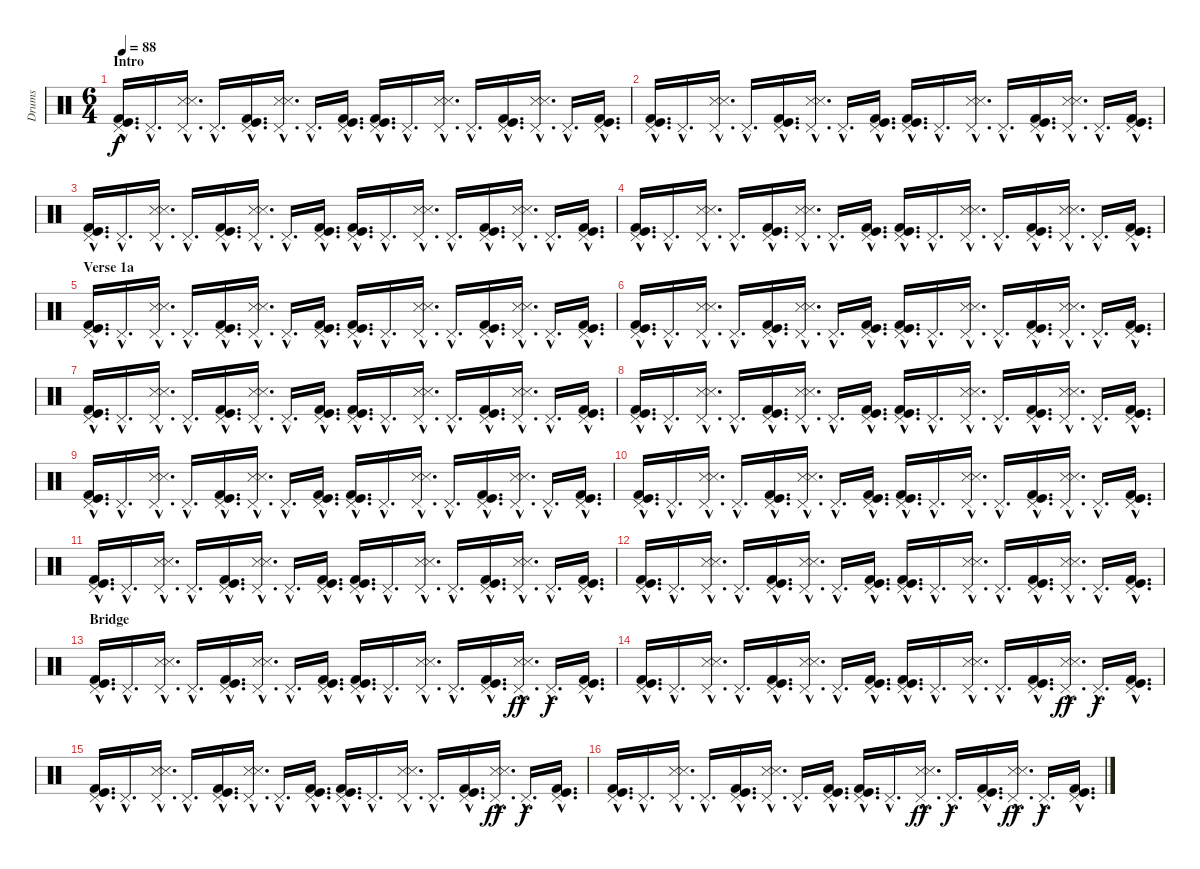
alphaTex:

\track ("Drums" "Drums") {instrument percussion}
\staff {score}
\articulation defaults
\ts (6 4)
\section ("" "Intro")
\tempo 88
\clef neutral
\ks c
("Pedal Hi-Hat (hit)"{hac} "Kick (hit)"{hac} "Kick (hit) 2"{hac}).16{d dy f} "Pedal Hi-Hat (hit)"{hac}.16{d} ("Pedal Hi-Hat (hit)"{hac} "Snare (side stick) 3"{hac} "Snare (side stick) 3"{hac}).16{d} "Pedal Hi-Hat (hit)"{hac}.16{d} ("Pedal Hi-Hat (hit)"{hac} "Kick (hit)"{hac} "Kick (hit) 2"{hac}).16{d} ("Pedal Hi-Hat (hit)"{hac} "Snare (side stick) 3"{hac} "Snare (side stick) 3"{hac}).16{d} "Pedal Hi-Hat (hit)"{hac}.16{d} ("Pedal Hi-Hat (hit)"{hac} "Kick (hit)"{hac} "Kick (hit) 2"{hac}).16{d} ("Pedal Hi-Hat (hit)"{hac} "Kick (hit)"{hac} "Kick (hit) 2"{hac}).16{d} "Pedal Hi-Hat (hit)"{hac}.16{d} ("Pedal Hi-Hat (hit)"{hac} "Snare (side stick) 3"{hac} "Snare (side stick) 3"{hac}).16{d} "Pedal Hi-Hat (hit)"{hac}.16{d} ("Pedal Hi-Hat (hit)"{hac} "Kick (hit)"{hac} "Kick (hit) 2"{hac}).16{d} ("Pedal Hi-Hat (hit)"{hac} "Snare (side stick) 3"{hac} "Snare (side stick) 3"{hac}).16{d} "Pedal Hi-Hat (hit)"{hac}.16{d} ("Pedal Hi-Hat (hit)"{hac} "Kick (hit)"{hac} "Kick (hit) 2"{hac}).16{d} |
("Pedal Hi-Hat (hit)"{hac} "Kick (hit)"{hac} "Kick (hit) 2"{hac}).16{d} "Pedal Hi-Hat (hit)"{hac}.16{d} ("Pedal Hi-Hat (hit)"{hac} "Snare (side stick) 3"{hac} "Snare (side stick) 3"{hac}).16{d} "Pedal Hi-Hat (hit)"{hac}.16{d} ("Pedal Hi-Hat (hit)"{hac} "Kick (hit)"{hac} "Kick (hit) 2"{hac}).16{d} ("Pedal Hi-Hat (hit)"{hac} "Snare (side stick) 3"{hac} "Snare (side stick) 3"{hac}).16{d} "Pedal Hi-Hat (hit)"{hac}.16{d} ("Pedal Hi-Hat (hit)"{hac} "Kick (hit)"{hac} "Kick (hit) 2"{hac}).16{d} ("Pedal Hi-Hat (hit)"{hac} "Kick (hit)"{hac} "Kick (hit) 2"{hac}).16{d} "Pedal Hi-Hat (hit)"{hac}.16{d} ("Pedal Hi-Hat (hit)"{hac} "Snare (side stick) 3"{hac} "Snare (side stick) 3"{hac}).16{d} "Pedal Hi-Hat (hit)"{hac}.16{d} ("Pedal Hi-Hat (hit)"{hac} "Kick (hit)"{hac} "Kick (hit) 2"{hac}).16{d} ("Pedal Hi-Hat (hit)"{hac} "Snare (side stick) 3"{hac} "Snare (side stick) 3"{hac}).16{d} "Pedal Hi-Hat (hit)"{hac}.16{d} ("Pedal Hi-Hat (hit)"{hac} "Kick (hit)"{hac} "Kick (hit) 2"{hac}).16{d} |
("Pedal Hi-Hat (hit)"{hac} "Kick (hit)"{hac} "Kick (hit) 2"{hac}).16{d} "Pedal Hi-Hat (hit)"{hac}.16{d} ("Pedal Hi-Hat (hit)"{hac} "Snare (side stick) 3"{hac} "Snare (side stick) 3"{hac}).16{d} "Pedal Hi-Hat (hit)"{hac}.16{d} ("Pedal Hi-Hat (hit)"{hac} "Kick (hit)"{hac} "Kick (hit) 2"{hac}).16{d} ("Pedal Hi-Hat (hit)"{hac} "Snare (side stick) 3"{hac} "Snare (side stick) 3"{hac}).16{d} "Pedal Hi-Hat (hit)"{hac}.16{d} ("Pedal Hi-Hat (hit)"{hac} "Kick (hit)"{hac} "Kick (hit) 2"{hac}).16{d} ("Pedal Hi-Hat (hit)"{hac} "Kick (hit)"{hac} "Kick (hit) 2"{hac}).16{d} "Pedal Hi-Hat (hit)"{hac}.16{d} ("Pedal Hi-Hat (hit)"{hac} "Snare (side stick) 3"{hac} "Snare (side stick) 3"{hac}).16{d} "Pedal Hi-Hat (hit)"{hac}.16{d} ("Pedal Hi-Hat (hit)"{hac} "Kick (hit)"{hac} "Kick (hit) 2"{hac}).16{d} ("Pedal Hi-Hat (hit)"{hac} "Snare (side stick) 3"{hac} "Snare (side stick) 3"{hac}).16{d} "Pedal Hi-Hat (hit)"{hac}.16{d} ("Pedal Hi-Hat (hit)"{hac} "Kick (hit)"{hac} "Kick (hit) 2"{hac}).16{d} |
("Pedal Hi-Hat (hit)"{hac} "Kick (hit)"{hac} "Kick (hit) 2"{hac}).16{d} "Pedal Hi-Hat (hit)"{hac}.16{d} ("Pedal Hi-Hat (hit)"{hac} "Snare (side stick) 3"{hac} "Snare (side stick) 3"{hac}).16{d} "Pedal Hi-Hat (hit)"{hac}.16{d} ("Pedal Hi-Hat (hit)"{hac} "Kick (hit)"{hac} "Kick (hit) 2"{hac}).16{d} ("Pedal Hi-Hat (hit)"{hac} "Snare (side stick) 3"{hac} "Snare (side stick) 3"{hac}).16{d} "Pedal Hi-Hat (hit)"{hac}.16{d} ("Pedal Hi-Hat (hit)"{hac} "Kick (hit)"{hac} "Kick (hit) 2"{hac}).16{d} ("Pedal Hi-Hat (hit)"{hac} "Kick (hit)"{hac} "Kick (hit) 2"{hac}).16{d} "Pedal Hi-Hat (hit)"{hac}.16{d} ("Pedal Hi-Hat (hit)"{hac} "Snare (side stick) 3"{hac} "Snare (side stick) 3"{hac}).16{d} "Pedal Hi-Hat (hit)"{hac}.16{d} ("Pedal Hi-Hat (hit)"{hac} "Kick (hit)"{hac} "Kick (hit) 2"{hac}).16{d} ("Pedal Hi-Hat (hit)"{hac} "Snare (side stick) 3"{hac} "Snare (side stick) 3"{hac}).16{d} "Pedal Hi-Hat (hit)"{hac}.16{d} ("Pedal Hi-Hat (hit)"{hac} "Kick (hit)"{hac} "Kick (hit) 2"{hac}).16{d} |
\section ("" "Verse 1a")
("Pedal Hi-Hat (hit)"{hac} "Kick (hit)"{hac} "Kick (hit) 2"{hac}).16{d} "Pedal Hi-Hat (hit)"{hac}.16{d} ("Pedal Hi-Hat (hit)"{hac} "Snare (side stick) 3"{hac} "Snare (side stick) 3"{hac}).16{d} "Pedal Hi-Hat (hit)"{hac}.16{d} ("Pedal Hi-Hat (hit)"{hac} "Kick (hit)"{hac} "Kick (hit) 2"{hac}).16{d} ("Pedal Hi-Hat (hit)"{hac} "Snare (side stick) 3"{hac} "Snare (side stick) 3"{hac}).16{d} "Pedal Hi-Hat (hit)"{hac}.16{d} ("Pedal Hi-Hat (hit)"{hac} "Kick (hit)"{hac} "Kick (hit) 2"{hac}).16{d} ("Pedal Hi-Hat (hit)"{hac} "Kick (hit)"{hac} "Kick (hit) 2"{hac}).16{d} "Pedal Hi-Hat (hit)"{hac}.16{d} ("Pedal Hi-Hat (hit)"{hac} "Snare (side stick) 3"{hac} "Snare (side stick) 3"{hac}).16{d} "Pedal Hi-Hat (hit)"{hac}.16{d} ("Pedal Hi-Hat (hit)"{hac} "Kick (hit)"{hac} "Kick (hit) 2"{hac}).16{d} ("Pedal Hi-Hat (hit)"{hac} "Snare (side stick) 3"{hac} "Snare (side stick) 3"{hac}).16{d} "Pedal Hi-Hat (hit)"{hac}.16{d} ("Pedal Hi-Hat (hit)"{hac} "Kick (hit)"{hac} "Kick (hit) 2"{hac}).16{d} |
("Pedal Hi-Hat (hit)"{hac} "Kick (hit)"{hac} "Kick (hit) 2"{hac}).16{d} "Pedal Hi-Hat (hit)"{hac}.16{d} ("Pedal Hi-Hat (hit)"{hac} "Snare (side stick) 3"{hac} "Snare (side stick) 3"{hac}).16{d} "Pedal Hi-Hat (hit)"{hac}.16{d} ("Pedal Hi-Hat (hit)"{hac} "Kick (hit)"{hac} "Kick (hit) 2"{hac}).16{d} ("Pedal Hi-Hat (hit)"{hac} "Snare (side stick) 3"{hac} "Snare (side stick) 3"{hac}).16{d} "Pedal Hi-Hat (hit)"{hac}.16{d} ("Pedal Hi-Hat (hit)"{hac} "Kick (hit)"{hac} "Kick (hit) 2"{hac}).16{d} ("Pedal Hi-Hat (hit)"{hac} "Kick (hit)"{hac} "Kick (hit) 2"{hac}).16{d} "Pedal Hi-Hat (hit)"{hac}.16{d} ("Pedal Hi-Hat (hit)"{hac} "Snare (side stick) 3"{hac} "Snare (side stick) 3"{hac}).16{d} "Pedal Hi-Hat (hit)"{hac}.16{d} ("Pedal Hi-Hat (hit)"{hac} "Kick (hit)"{hac} "Kick (hit) 2"{hac}).16{d} ("Pedal Hi-Hat (hit)"{hac} "Snare (side stick) 3"{hac} "Snare (side stick) 3"{hac}).16{d} "Pedal Hi-Hat (hit)"{hac}.16{d} ("Pedal Hi-Hat (hit)"{hac} "Kick (hit)"{hac} "Kick (hit) 2"{hac}).16{d} |
("Pedal Hi-Hat (hit)"{hac} "Kick (hit)"{hac} "Kick (hit) 2"{hac}).16{d} "Pedal Hi-Hat (hit)"{hac}.16{d} ("Pedal Hi-Hat (hit)"{hac} "Snare (side stick) 3"{hac} "Snare (side stick) 3"{hac}).16{d} "Pedal Hi-Hat (hit)"{hac}.16{d} ("Pedal Hi-Hat (hit)"{hac} "Kick (hit)"{hac} "Kick (hit) 2"{hac}).16{d} ("Pedal Hi-Hat (hit)"{hac} "Snare (side stick) 3"{hac} "Snare (side stick) 3"{hac}).16{d} "Pedal Hi-Hat (hit)"{hac}.16{d} ("Pedal Hi-Hat (hit)"{hac} "Kick (hit)"{hac} "Kick (hit) 2"{hac}).16{d} ("Pedal Hi-Hat (hit)"{hac} "Kick (hit)"{hac} "Kick (hit) 2"{hac}).16{d} "Pedal Hi-Hat (hit)"{hac}.16{d} ("Pedal Hi-Hat (hit)"{hac} "Snare (side stick) 3"{hac} "Snare (side stick) 3"{hac}).16{d} "Pedal Hi-Hat (hit)"{hac}.16{d} ("Pedal Hi-Hat (hit)"{hac} "Kick (hit)"{hac} "Kick (hit) 2"{hac}).16{d} ("Pedal Hi-Hat (hit)"{hac} "Snare (side stick) 3"{hac} "Snare (side stick) 3"{hac}).16{d} "Pedal Hi-Hat (hit)"{hac}.16{d} ("Pedal Hi-Hat (hit)"{hac} "Kick (hit)"{hac} "Kick (hit) 2"{hac}).16{d} |
("Pedal Hi-Hat (hit)"{hac} "Kick (hit)"{hac} "Kick (hit) 2"{hac}).16{d} "Pedal Hi-Hat (hit)"{hac}.16{d} ("Pedal Hi-Hat (hit)"{hac} "Snare (side stick) 3"{hac} "Snare (side stick) 3"{hac}).16{d} "Pedal Hi-Hat (hit)"{hac}.16{d} ("Pedal Hi-Hat (hit)"{hac} "Kick (hit)"{hac} "Kick (hit) 2"{hac}).16{d} ("Pedal Hi-Hat (hit)"{hac} "Snare (side stick) 3"{hac} "Snare (side stick) 3"{hac}).16{d} "Pedal Hi-Hat (hit)"{hac}.16{d} ("Pedal Hi-Hat (hit)"{hac} "Kick (hit)"{hac} "Kick (hit) 2"{hac}).16{d} ("Pedal Hi-Hat (hit)"{hac} "Kick (hit)"{hac} "Kick (hit) 2"{hac}).16{d} "Pedal Hi-Hat (hit)"{hac}.16{d} ("Pedal Hi-Hat (hit)"{hac} "Snare (side stick) 3"{hac} "Snare (side stick) 3"{hac}).16{d} "Pedal Hi-Hat (hit)"{hac}.16{d} ("Pedal Hi-Hat (hit)"{hac} "Kick (hit)"{hac} "Kick (hit) 2"{hac}).16{d} ("Pedal Hi-Hat (hit)"{hac} "Snare (side stick) 3"{hac} "Snare (side stick) 3"{hac}).16{d} "Pedal Hi-Hat (hit)"{hac}.16{d} ("Pedal Hi-Hat (hit)"{hac} "Kick (hit)"{hac} "Kick (hit) 2"{hac}).16{d} |
("Pedal Hi-Hat (hit)"{hac} "Kick (hit)"{hac} "Kick (hit) 2"{hac}).16{d} "Pedal Hi-Hat (hit)"{hac}.16{d} ("Pedal Hi-Hat (hit)"{hac} "Snare (side stick) 3"{hac} "Snare (side stick) 3"{hac}).16{d} "Pedal Hi-Hat (hit)"{hac}.16{d} ("Pedal Hi-Hat (hit)"{hac} "Kick (hit)"{hac} "Kick (hit) 2"{hac}).16{d} ("Pedal Hi-Hat (hit)"{hac} "Snare (side stick) 3"{hac} "Snare (side stick) 3"{hac}).16{d} "Pedal Hi-Hat (hit)"{hac}.16{d} ("Pedal Hi-Hat (hit)"{hac} "Kick (hit)"{hac} "Kick (hit) 2"{hac}).16{d} ("Pedal Hi-Hat (hit)"{hac} "Kick (hit)"{hac} "Kick (hit) 2"{hac}).16{d} "Pedal Hi-Hat (hit)"{hac}.16{d} ("Pedal Hi-Hat (hit)"{hac} "Snare (side stick) 3"{hac} "Snare (side stick) 3"{hac}).16{d} "Pedal Hi-Hat (hit)"{hac}.16{d} ("Pedal Hi-Hat (hit)"{hac} "Kick (hit)"{hac} "Kick (hit) 2"{hac}).16{d} ("Pedal Hi-Hat (hit)"{hac} "Snare (side stick) 3"{hac} "Snare (side stick) 3"{hac}).16{d} "Pedal Hi-Hat (hit)"{hac}.16{d} ("Pedal Hi-Hat (hit)"{hac} "Kick (hit)"{hac} "Kick (hit) 2"{hac}).16{d} |
("Pedal Hi-Hat (hit)"{hac} "Kick (hit)"{hac} "Kick (hit) 2"{hac}).16{d} "Pedal Hi-Hat (hit)"{hac}.16{d} ("Pedal Hi-Hat (hit)"{hac} "Snare (side stick) 3"{hac} "Snare (side stick) 3"{hac}).16{d} "Pedal Hi-Hat (hit)"{hac}.16{d} ("Pedal Hi-Hat (hit)"{hac} "Kick (hit)"{hac} "Kick (hit) 2"{hac}).16{d} ("Pedal Hi-Hat (hit)"{hac} "Snare (side stick) 3"{hac} "Snare (side stick) 3"{hac}).16{d} "Pedal Hi-Hat (hit)"{hac}.16{d} ("Pedal Hi-Hat (hit)"{hac} "Kick (hit)"{hac} "Kick (hit) 2"{hac}).16{d} ("Pedal Hi-Hat (hit)"{hac} "Kick (hit)"{hac} "Kick (hit) 2"{hac}).16{d} "Pedal Hi-Hat (hit)"{hac}.16{d} ("Pedal Hi-Hat (hit)"{hac} "Snare (side stick) 3"{hac} "Snare (side stick) 3"{hac}).16{d} "Pedal Hi-Hat (hit)"{hac}.16{d} ("Pedal Hi-Hat (hit)"{hac} "Kick (hit)"{hac} "Kick (hit) 2"{hac}).16{d} ("Pedal Hi-Hat (hit)"{hac} "Snare (side stick) 3"{hac} "Snare (side stick) 3"{hac}).16{d} "Pedal Hi-Hat (hit)"{hac}.16{d} ("Pedal Hi-Hat (hit)"{hac} "Kick (hit)"{hac} "Kick (hit) 2"{hac}).16{d} |
("Pedal Hi-Hat (hit)"{hac} "Kick (hit)"{hac} "Kick (hit) 2"{hac}).16{d} "Pedal Hi-Hat (hit)"{hac}.16{d} ("Pedal Hi-Hat (hit)"{hac} "Snare (side stick) 3"{hac} "Snare (side stick) 3"{hac}).16{d} "Pedal Hi-Hat (hit)"{hac}.16{d} ("Pedal Hi-Hat (hit)"{hac} "Kick (hit)"{hac} "Kick (hit) 2"{hac}).16{d} ("Pedal Hi-Hat (hit)"{hac} "Snare (side stick) 3"{hac} "Snare (side stick) 3"{hac}).16{d} "Pedal Hi-Hat (hit)"{hac}.16{d} ("Pedal Hi-Hat (hit)"{hac} "Kick (hit)"{hac} "Kick (hit) 2"{hac}).16{d} ("Pedal Hi-Hat (hit)"{hac} "Kick (hit)"{hac} "Kick (hit) 2"{hac}).16{d} "Pedal Hi-Hat (hit)"{hac}.16{d} ("Pedal Hi-Hat (hit)"{hac} "Snare (side stick) 3"{hac} "Snare (side stick) 3"{hac}).16{d} "Pedal Hi-Hat (hit)"{hac}.16{d} ("Pedal Hi-Hat (hit)"{hac} "Kick (hit)"{hac} "Kick (hit) 2"{hac}).16{d} ("Pedal Hi-Hat (hit)"{hac} "Snare (side stick) 3"{hac} "Snare (side stick) 3"{hac}).16{d} "Pedal Hi-Hat (hit)"{hac}.16{d} ("Pedal Hi-Hat (hit)"{hac} "Kick (hit)"{hac} "Kick (hit) 2"{hac}).16{d} |
("Pedal Hi-Hat (hit)"{hac} "Kick (hit)"{hac} "Kick (hit) 2"{hac}).16{d} "Pedal Hi-Hat (hit)"{hac}.16{d} ("Pedal Hi-Hat (hit)"{hac} "Snare (side stick) 3"{hac} "Snare (side stick) 3"{hac}).16{d} "Pedal Hi-Hat (hit)"{hac}.16{d} ("Pedal Hi-Hat (hit)"{hac} "Kick (hit)"{hac} "Kick (hit) 2"{hac}).16{d} ("Pedal Hi-Hat (hit)"{hac} "Snare (side stick) 3"{hac} "Snare (side stick) 3"{hac}).16{d} "Pedal Hi-Hat (hit)"{hac}.16{d} ("Pedal Hi-Hat (hit)"{hac} "Kick (hit)"{hac} "Kick (hit) 2"{hac}).16{d} ("Pedal Hi-Hat (hit)"{hac} "Kick (hit)"{hac} "Kick (hit) 2"{hac}).16{d} "Pedal Hi-Hat (hit)"{hac}.16{d} ("Pedal Hi-Hat (hit)"{hac} "Snare (side stick) 3"{hac} "Snare (side stick) 3"{hac}).16{d} "Pedal Hi-Hat (hit)"{hac}.16{d} ("Pedal Hi-Hat (hit)"{hac} "Kick (hit)"{hac} "Kick (hit) 2"{hac}).16{d} ("Pedal Hi-Hat (hit)"{hac} "Snare (side stick) 3"{hac} "Snare (side stick) 3"{hac}).16{d} "Pedal Hi-Hat (hit)"{hac}.16{d} ("Pedal Hi-Hat (hit)"{hac} "Kick (hit)"{hac} "Kick (hit) 2"{hac}).16{d} |
\section ("" "Bridge")
("Pedal Hi-Hat (hit)"{hac} "Kick (hit)"{hac} "Kick (hit) 2"{hac}).16{d} "Pedal Hi-Hat (hit)"{hac}.16{d} ("Pedal Hi-Hat (hit)"{hac} "Snare (side stick) 3"{hac} "Snare (side stick) 3"{hac}).16{d} "Pedal Hi-Hat (hit)"{hac}.16{d} ("Pedal Hi-Hat (hit)"{hac} "Kick (hit)"{hac} "Kick (hit) 2"{hac}).16{d} ("Pedal Hi-Hat (hit)"{hac} "Snare (side stick) 3"{hac} "Snare (side stick) 3"{hac}).16{d} "Pedal Hi-Hat (hit)"{hac}.16{d} ("Pedal Hi-Hat (hit)"{hac} "Kick (hit)"{hac} "Kick (hit) 2"{hac}).16{d} ("Pedal Hi-Hat (hit)"{hac} "Kick (hit)"{hac} "Kick (hit) 2"{hac}).16{d} "Pedal Hi-Hat (hit)"{hac}.16{d} ("Pedal Hi-Hat (hit)"{hac} "Snare (side stick) 3"{hac} "Snare (side stick) 3"{hac}).16{d} "Pedal Hi-Hat (hit)"{hac}.16{d} ("Pedal Hi-Hat (hit)"{hac} "Kick (hit)"{hac} "Kick (hit) 2"{hac}).16{d} ("Pedal Hi-Hat (hit)"{hac} "Snare (side stick) 3"{hac} "Snare (side stick) 3"{hac}).16{d dy ff} "Pedal Hi-Hat (hit)"{hac}.16{d dy f} ("Pedal Hi-Hat (hit)"{hac} "Kick (hit)"{hac} "Kick (hit) 2"{hac}).16{d} |
("Pedal Hi-Hat (hit)"{hac} "Kick (hit)"{hac} "Kick (hit) 2"{hac}).16{d} "Pedal Hi-Hat (hit)"{hac}.16{d} ("Pedal Hi-Hat (hit)"{hac} "Snare (side stick) 3"{hac} "Snare (side stick) 3"{hac}).16{d} "Pedal Hi-Hat (hit)"{hac}.16{d} ("Pedal Hi-Hat (hit)"{hac} "Kick (hit)"{hac} "Kick (hit) 2"{hac}).16{d} ("Pedal Hi-Hat (hit)"{hac} "Snare (side stick) 3"{hac} "Snare (side stick) 3"{hac}).16{d} "Pedal Hi-Hat (hit)"{hac}.16{d} ("Pedal Hi-Hat (hit)"{hac} "Kick (hit)"{hac} "Kick (hit) 2"{hac}).16{d} ("Pedal Hi-Hat (hit)"{hac} "Kick (hit)"{hac} "Kick (hit) 2"{hac}).16{d} "Pedal Hi-Hat (hit)"{hac}.16{d} ("Pedal Hi-Hat (hit)"{hac} "Snare (side stick) 3"{hac} "Snare (side stick) 3"{hac}).16{d} "Pedal Hi-Hat (hit)"{hac}.16{d} ("Pedal Hi-Hat (hit)"{hac} "Kick (hit)"{hac} "Kick (hit) 2"{hac}).16{d} ("Pedal Hi-Hat (hit)"{hac} "Snare (side stick) 3"{hac} "Snare (side stick) 3"{hac}).16{d dy ff} "Pedal Hi-Hat (hit)"{hac}.16{d dy f} ("Pedal Hi-Hat (hit)"{hac} "Kick (hit)"{hac} "Kick (hit) 2"{hac}).16{d} |
("Pedal Hi-Hat (hit)"{hac} "Kick (hit)"{hac} "Kick (hit) 2"{hac}).16{d} "Pedal Hi-Hat (hit)"{hac}.16{d} ("Pedal Hi-Hat (hit)"{hac} "Snare (side stick) 3"{hac} "Snare (side stick) 3"{hac}).16{d} "Pedal Hi-Hat (hit)"{hac}.16{d} ("Pedal Hi-Hat (hit)"{hac} "Kick (hit)"{hac} "Kick (hit) 2"{hac}).16{d} ("Pedal Hi-Hat (hit)"{hac} "Snare (side stick) 3"{hac} "Snare (side stick) 3"{hac}).16{d} "Pedal Hi-Hat (hit)"{hac}.16{d} ("Pedal Hi-Hat (hit)"{hac} "Kick (hit)"{hac} "Kick (hit) 2"{hac}).16{d} ("Pedal Hi-Hat (hit)"{hac} "Kick (hit)"{hac} "Kick (hit) 2"{hac}).16{d} "Pedal Hi-Hat (hit)"{hac}.16{d} ("Pedal Hi-Hat (hit)"{hac} "Snare (side stick) 3"{hac} "Snare (side stick) 3"{hac}).16{d} "Pedal Hi-Hat (hit)"{hac}.16{d} ("Pedal Hi-Hat (hit)"{hac} "Kick (hit)"{hac} "Kick (hit) 2"{hac}).16{d} ("Pedal Hi-Hat (hit)"{hac} "Snare (side stick) 3"{hac} "Snare (side stick) 3"{hac}).16{d dy ff} "Pedal Hi-Hat (hit)"{hac}.16{d dy f} ("Pedal Hi-Hat (hit)"{hac} "Kick (hit)"{hac} "Kick (hit) 2"{hac}).16{d} |
("Pedal Hi-Hat (hit)"{hac} "Kick (hit)"{hac} "Kick (hit) 2"{hac}).16{d} "Pedal Hi-Hat (hit)"{hac}.16{d} ("Pedal Hi-Hat (hit)"{hac} "Snare (side stick) 3"{hac} "Snare (side stick) 3"{hac}).16{d} "Pedal Hi-Hat (hit)"{hac}.16{d} ("Pedal Hi-Hat (hit)"{hac} "Kick (hit)"{hac} "Kick (hit) 2"{hac}).16{d} ("Pedal Hi-Hat (hit)"{hac} "Snare (side stick) 3"{hac} "Snare (side stick) 3"{hac}).16{d} "Pedal Hi-Hat (hit)"{hac}.16{d} ("Pedal Hi-Hat (hit)"{hac} "Kick (hit)"{hac} "Kick (hit) 2"{hac}).16{d} ("Pedal Hi-Hat (hit)"{hac} "Kick (hit)"{hac} "Kick (hit) 2"{hac}).16{d} "Pedal Hi-Hat (hit)"{hac}.16{d} ("Pedal Hi-Hat (hit)"{hac} "Snare (side stick) 3"{hac} "Snare (side stick) 3"{hac}).16{d dy ff} "Pedal Hi-Hat (hit)"{hac}.16{d dy f} ("Pedal Hi-Hat (hit)"{hac} "Kick (hit)"{hac} "Kick (hit) 2"{hac}).16{d} ("Pedal Hi-Hat (hit)"{hac} "Snare (side stick) 3"{hac} "Snare (side stick) 3"{hac}).16{d dy ff} "Pedal Hi-Hat (hit)"{hac}.16{d dy f} ("Pedal Hi-Hat (hit)"{hac} "Kick (hit)"{hac} "Kick (hit) 2"{hac}).16{d}
